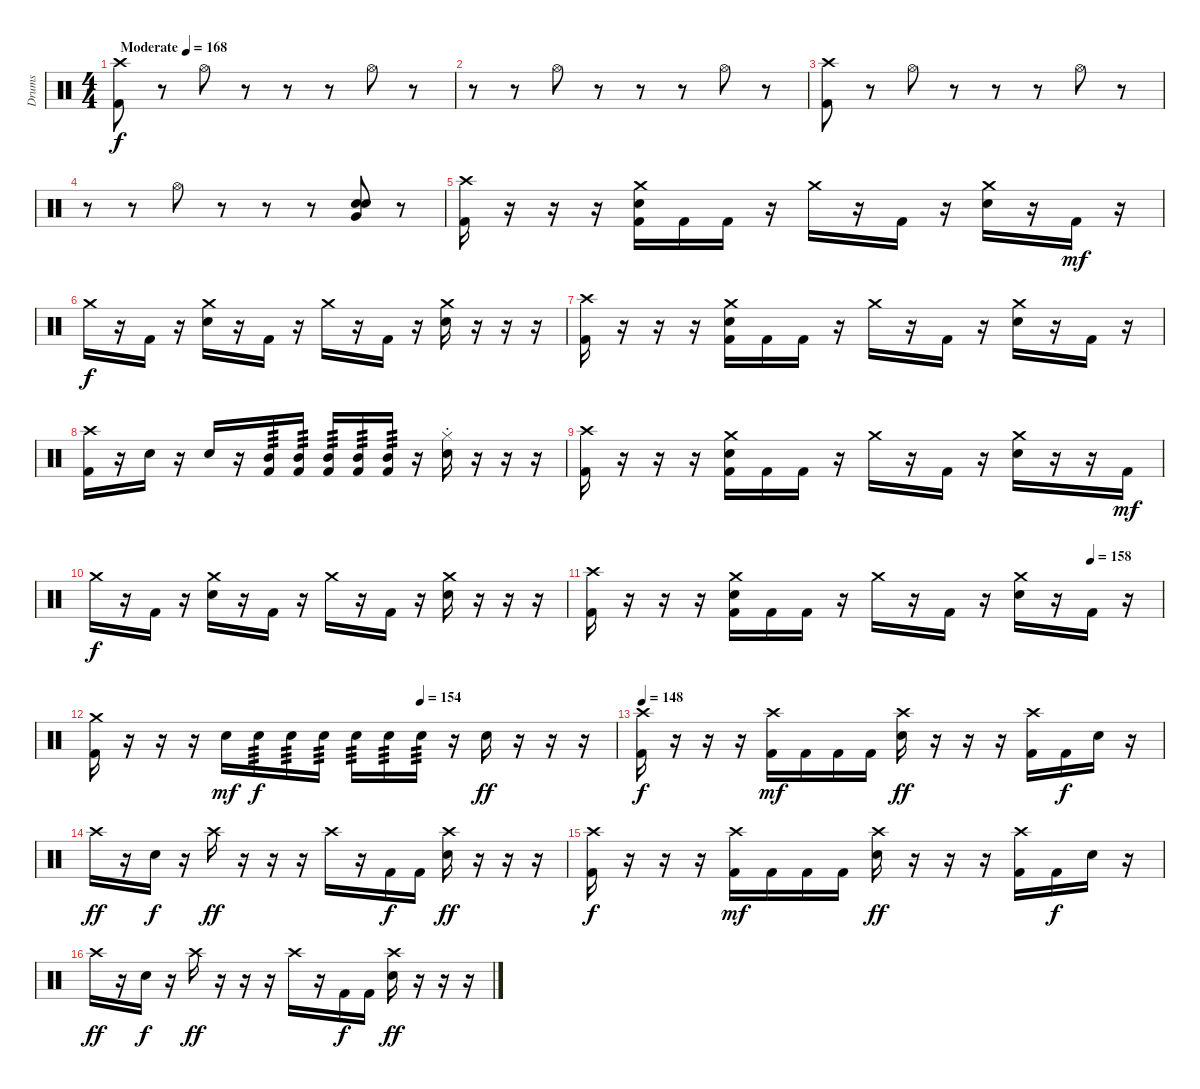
\track ("Drums" "Drums") {instrument percussion}
\staff {score}
\articulation defaults
\ts (4 4)
\tempo (168 "Moderate")
\clef neutral
\ks c
("Crash high (hit)" "Kick (hit) 2").8{dy f} r.8 "Hi-Hat (open)".8 r.8 r.8 r.8 "Hi-Hat (open)".8 r.8 |
r.8 r.8 "Hi-Hat (open)".8 r.8 r.8 r.8 "Hi-Hat (open)".8 r.8 |
("Crash high (hit)" "Kick (hit) 2").8 r.8 "Hi-Hat (open)".8 r.8 r.8 r.8 "Hi-Hat (open)".8 r.8 |
r.8 r.8 "Hi-Hat (open)".8 r.8 r.8 r.8 ("Very Low Tom (hit)" "Electric Snare (hit)" "Snare (hit) 2").8 r.8 |
("Crash high (hit)" "Kick (hit) 2").16 r.16 r.16 r.16 ("Crash medium (hit)" "Electric Snare (hit)" "Kick (hit) 2").16 "Kick (hit) 2".16 "Kick (hit) 2".16 r.16 "Crash medium (hit)".16 r.16 "Kick (hit) 2".16 r.16 ("Crash medium (hit)" "Electric Snare (hit)").16 r.16 "Kick (hit) 2".16{dy mf} r.16 |
"Crash medium (hit)".16{dy f} r.16 "Kick (hit) 2".16 r.16 ("Crash medium (hit)" "Electric Snare (hit)").16 r.16 "Kick (hit) 2".16 r.16 "Crash medium (hit)".16 r.16 "Kick (hit) 2".16 r.16 ("Crash medium (hit)" "Electric Snare (hit)").16 r.16 r.16 r.16 |
("Crash high (hit)" "Kick (hit) 2").16 r.16 r.16 r.16 ("Crash medium (hit)" "Electric Snare (hit)" "Kick (hit) 2").16 "Kick (hit) 2".16 "Kick (hit) 2".16 r.16 "Crash medium (hit)".16 r.16 "Kick (hit) 2".16 r.16 ("Crash medium (hit)" "Electric Snare (hit)").16 r.16 "Kick (hit) 2".16 r.16 |
("Crash high (hit)" "Kick (hit) 2").16 r.16 "Electric Snare (hit)".16 r.16 "Electric Snare (hit)".16 r.16 ("Mid Tom (hit)" "Kick (hit) 2").16{tp 3} ("Mid Tom (hit)" "Kick (hit) 2").16{tp 3} ("Mid Tom (hit)" "Kick (hit) 2").16{tp 3} ("Mid Tom (hit)" "Kick (hit) 2").16{tp 3} ("Mid Tom (hit)" "Kick (hit) 2").16{tp 3} r.16 ("Hi-Hat (closed)"{st} "Electric Snare (hit)").16 r.16 r.16 r.16 |
("Crash high (hit)" "Kick (hit) 2").16 r.16 r.16 r.16 ("Crash medium (hit)" "Electric Snare (hit)" "Kick (hit) 2").16 "Kick (hit) 2".16 "Kick (hit) 2".16 r.16 "Crash medium (hit)".16 r.16 "Kick (hit) 2".16 r.16 ("Crash medium (hit)" "Electric Snare (hit)").16 r.16 r.16 "Kick (hit) 2".16{dy mf} |
"Crash medium (hit)".16{dy f} r.16 "Kick (hit) 2".16 r.16 ("Crash medium (hit)" "Electric Snare (hit)").16 r.16 "Kick (hit) 2".16 r.16 "Crash medium (hit)".16 r.16 "Kick (hit) 2".16 r.16 ("Crash medium (hit)" "Electric Snare (hit)").16 r.16 r.16 r.16 |
\tempo (158 0.875)
("Crash high (hit)" "Kick (hit) 2").16 r.16 r.16 r.16 ("Crash medium (hit)" "Electric Snare (hit)" "Kick (hit) 2").16 "Kick (hit) 2".16 "Kick (hit) 2".16 r.16 "Crash medium (hit)".16 r.16 "Kick (hit) 2".16 r.16 ("Crash medium (hit)" "Electric Snare (hit)").16 r.16 "Kick (hit) 2".16 r.16 |
\tempo (154 0.625)
("Crash medium (hit)" "Kick (hit) 2").16 r.16 r.16 r.16 "Electric Snare (hit)".16{dy mf} "Electric Snare (hit)".16{tp 3 dy f} "Electric Snare (hit)".16{tp 3} "Electric Snare (hit)".16{tp 3} "Electric Snare (hit)".16{tp 3} "Electric Snare (hit)".16{tp 3} "Electric Snare (hit)".16{tp 3} r.16 "Electric Snare (hit)".16{dy ff} r.16 r.16 r.16 |
\tempo 148
("Crash high (hit)" "Kick (hit) 2").16{dy f} r.16 r.16 r.16 ("Crash high (hit)" "Kick (hit) 2").16{dy mf} "Kick (hit) 2".16 "Kick (hit) 2".16 "Kick (hit) 2".16 ("Crash high (hit)" "Electric Snare (hit)").16{dy ff} r.16 r.16 r.16 ("Crash high (hit)" "Kick (hit) 2").16 "Kick (hit) 2".16{dy f} "Electric Snare (hit)".16 r.16 |
"Crash high (hit)".16{dy ff} r.16 "Electric Snare (hit)".16{dy f} r.16 "Crash high (hit)".16{dy ff} r.16 r.16 r.16 "Crash high (hit)".16 r.16 "Kick (hit) 2".16{dy f} "Kick (hit) 2".16 ("Crash high (hit)" "Electric Snare (hit)").16{dy ff} r.16 r.16 r.16 |
("Crash high (hit)" "Kick (hit) 2").16{dy f} r.16 r.16 r.16 ("Crash high (hit)" "Kick (hit) 2").16{dy mf} "Kick (hit) 2".16 "Kick (hit) 2".16 "Kick (hit) 2".16 ("Crash high (hit)" "Electric Snare (hit)").16{dy ff} r.16 r.16 r.16 ("Crash high (hit)" "Kick (hit) 2").16 "Kick (hit) 2".16{dy f} "Electric Snare (hit)".16 r.16 |
"Crash high (hit)".16{dy ff} r.16 "Electric Snare (hit)".16{dy f} r.16 "Crash high (hit)".16{dy ff} r.16 r.16 r.16 "Crash high (hit)".16 r.16 "Kick (hit) 2".16{dy f} "Kick (hit) 2".16 ("Crash high (hit)" "Electric Snare (hit)").16{dy ff} r.16 r.16 r.16
